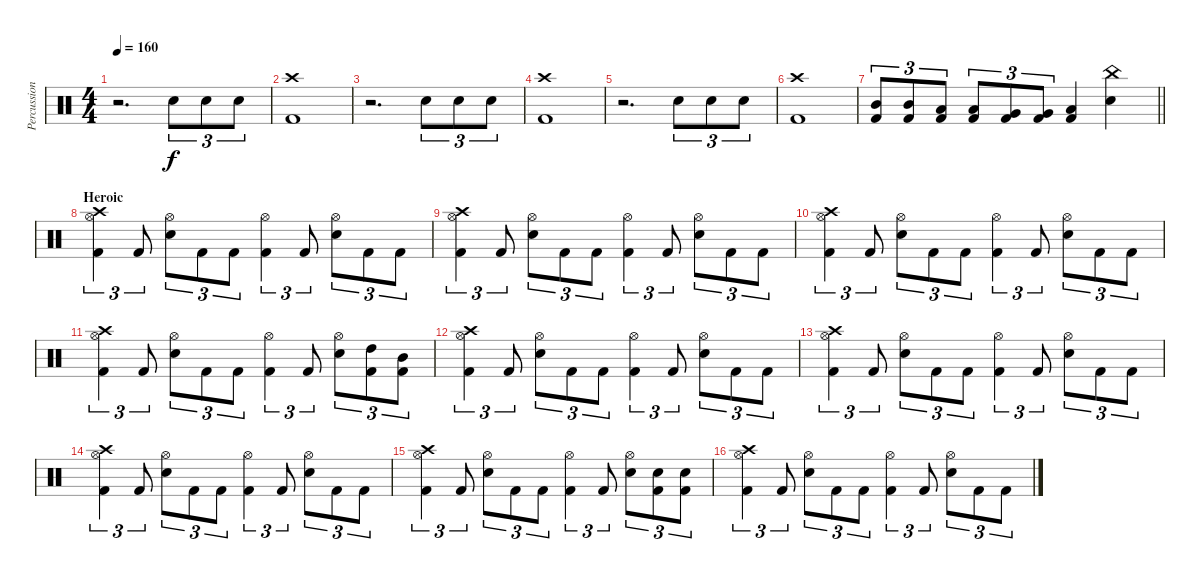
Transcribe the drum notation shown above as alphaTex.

\track ("Percussion" "Percussion") {instrument percussion}
\staff {score}
\articulation defaults
\ts (4 4)
\tempo 160
\clef neutral
\ks c
r.2{d dy f} "Snare (hit) 2".8{tu (3 2)} "Snare (hit) 2".8{tu (3 2)} "Snare (hit) 2".8{tu (3 2)} |
("Crash high (hit)" "Kick (hit) 2").1 |
r.2{d} "Snare (hit) 2".8{tu (3 2)} "Snare (hit) 2".8{tu (3 2)} "Snare (hit) 2".8{tu (3 2)} |
("Crash high (hit)" "Kick (hit) 2").1 |
r.2{d} "Snare (hit) 2".8{tu (3 2)} "Snare (hit) 2".8{tu (3 2)} "Snare (hit) 2".8{tu (3 2)} |
("Crash high (hit)" "Kick (hit) 2").1 |
\barLineRight lightlight
("Mid Tom (hit)" "Kick (hit) 2").8{tu (3 2)} ("Mid Tom (hit)" "Kick (hit) 2").8{tu (3 2)} ("Low Tom (hit)" "Kick (hit) 2").8{tu (3 2)} ("Low Tom (hit)" "Kick (hit) 2").8{tu (3 2)} ("Very Low Tom (hit)" "Kick (hit) 2").8{tu (3 2)} ("Very Low Tom (hit)" "Kick (hit) 2").8{tu (3 2)} ("Low Floor Tom (hit)" "Kick (hit) 2").4 ("China (hit)" "Snare (hit) 2").4 |
\section ("" "Heroic")
("Crash high (hit)" "Hi-Hat (open)" "Kick (hit) 2").4{tu (3 2)} "Kick (hit) 2".8{tu (3 2)} ("Hi-Hat (open)" "Snare (hit) 2").8{tu (3 2)} "Kick (hit) 2".8{tu (3 2)} "Kick (hit) 2".8{tu (3 2)} ("Hi-Hat (open)" "Kick (hit) 2").4{tu (3 2)} "Kick (hit) 2".8{tu (3 2)} ("Hi-Hat (open)" "Snare (hit) 2").8{tu (3 2)} "Kick (hit) 2".8{tu (3 2)} "Kick (hit) 2".8{tu (3 2)} |
("Crash high (hit)" "Hi-Hat (open)" "Kick (hit) 2").4{tu (3 2)} "Kick (hit) 2".8{tu (3 2)} ("Hi-Hat (open)" "Snare (hit) 2").8{tu (3 2)} "Kick (hit) 2".8{tu (3 2)} "Kick (hit) 2".8{tu (3 2)} ("Hi-Hat (open)" "Kick (hit) 2").4{tu (3 2)} "Kick (hit) 2".8{tu (3 2)} ("Hi-Hat (open)" "Snare (hit) 2").8{tu (3 2)} "Kick (hit) 2".8{tu (3 2)} "Kick (hit) 2".8{tu (3 2)} |
("Crash high (hit)" "Hi-Hat (open)" "Kick (hit) 2").4{tu (3 2)} "Kick (hit) 2".8{tu (3 2)} ("Hi-Hat (open)" "Snare (hit) 2").8{tu (3 2)} "Kick (hit) 2".8{tu (3 2)} "Kick (hit) 2".8{tu (3 2)} ("Hi-Hat (open)" "Kick (hit) 2").4{tu (3 2)} "Kick (hit) 2".8{tu (3 2)} ("Hi-Hat (open)" "Snare (hit) 2").8{tu (3 2)} "Kick (hit) 2".8{tu (3 2)} "Kick (hit) 2".8{tu (3 2)} |
("Crash high (hit)" "Hi-Hat (open)" "Kick (hit) 2").4{tu (3 2)} "Kick (hit) 2".8{tu (3 2)} ("Hi-Hat (open)" "Snare (hit) 2").8{tu (3 2)} "Kick (hit) 2".8{tu (3 2)} "Kick (hit) 2".8{tu (3 2)} ("Hi-Hat (open)" "Kick (hit) 2").4{tu (3 2)} "Kick (hit) 2".8{tu (3 2)} ("Hi-Hat (open)" "Snare (hit) 2").8{tu (3 2)} ("High Tom (hit)" "Kick (hit) 2").8{tu (3 2)} ("Mid Tom (hit)" "Kick (hit) 2").8{tu (3 2)} |
("Crash high (hit)" "Hi-Hat (open)" "Kick (hit) 2").4{tu (3 2)} "Kick (hit) 2".8{tu (3 2)} ("Hi-Hat (open)" "Snare (hit) 2").8{tu (3 2)} "Kick (hit) 2".8{tu (3 2)} "Kick (hit) 2".8{tu (3 2)} ("Hi-Hat (open)" "Kick (hit) 2").4{tu (3 2)} "Kick (hit) 2".8{tu (3 2)} ("Hi-Hat (open)" "Snare (hit) 2").8{tu (3 2)} "Kick (hit) 2".8{tu (3 2)} "Kick (hit) 2".8{tu (3 2)} |
("Crash high (hit)" "Hi-Hat (open)" "Kick (hit) 2").4{tu (3 2)} "Kick (hit) 2".8{tu (3 2)} ("Hi-Hat (open)" "Snare (hit) 2").8{tu (3 2)} "Kick (hit) 2".8{tu (3 2)} "Kick (hit) 2".8{tu (3 2)} ("Hi-Hat (open)" "Kick (hit) 2").4{tu (3 2)} "Kick (hit) 2".8{tu (3 2)} ("Hi-Hat (open)" "Snare (hit) 2").8{tu (3 2)} "Kick (hit) 2".8{tu (3 2)} "Kick (hit) 2".8{tu (3 2)} |
("Crash high (hit)" "Hi-Hat (open)" "Kick (hit) 2").4{tu (3 2)} "Kick (hit) 2".8{tu (3 2)} ("Hi-Hat (open)" "Snare (hit) 2").8{tu (3 2)} "Kick (hit) 2".8{tu (3 2)} "Kick (hit) 2".8{tu (3 2)} ("Hi-Hat (open)" "Kick (hit) 2").4{tu (3 2)} "Kick (hit) 2".8{tu (3 2)} ("Hi-Hat (open)" "Snare (hit) 2").8{tu (3 2)} "Kick (hit) 2".8{tu (3 2)} "Kick (hit) 2".8{tu (3 2)} |
("Crash high (hit)" "Hi-Hat (open)" "Kick (hit) 2").4{tu (3 2)} "Kick (hit) 2".8{tu (3 2)} ("Hi-Hat (open)" "Snare (hit) 2").8{tu (3 2)} "Kick (hit) 2".8{tu (3 2)} "Kick (hit) 2".8{tu (3 2)} ("Hi-Hat (open)" "Kick (hit) 2").4{tu (3 2)} "Kick (hit) 2".8{tu (3 2)} ("Hi-Hat (open)" "Snare (hit) 2").8{tu (3 2)} ("Snare (hit) 2" "Kick (hit) 2").8{tu (3 2)} ("Snare (hit) 2" "Kick (hit) 2").8{tu (3 2)} |
("Crash high (hit)" "Hi-Hat (open)" "Kick (hit) 2").4{tu (3 2)} "Kick (hit) 2".8{tu (3 2)} ("Hi-Hat (open)" "Snare (hit) 2").8{tu (3 2)} "Kick (hit) 2".8{tu (3 2)} "Kick (hit) 2".8{tu (3 2)} ("Hi-Hat (open)" "Kick (hit) 2").4{tu (3 2)} "Kick (hit) 2".8{tu (3 2)} ("Hi-Hat (open)" "Snare (hit) 2").8{tu (3 2)} "Kick (hit) 2".8{tu (3 2)} "Kick (hit) 2".8{tu (3 2)}
